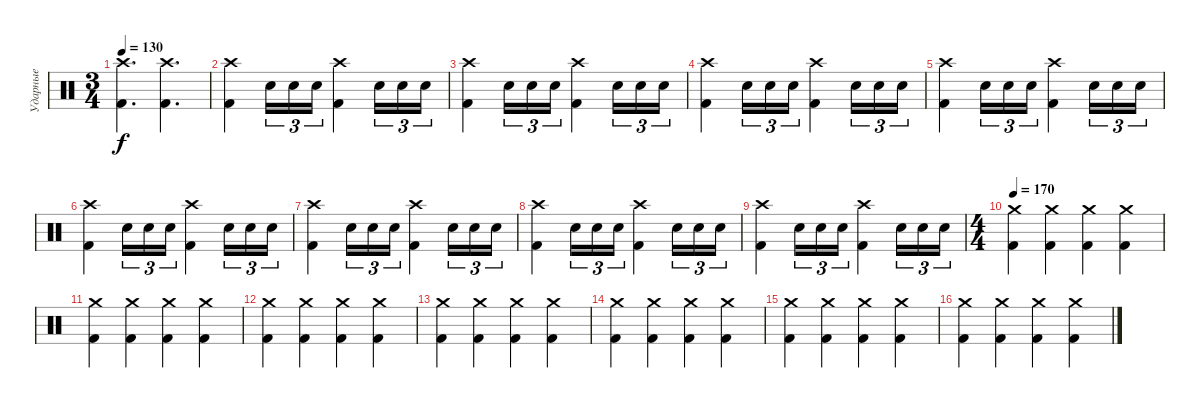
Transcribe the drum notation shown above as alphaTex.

\track ("Ударные" "Ударные") {instrument percussion}
\staff {score}
\articulation defaults
\ts (3 4)
\tempo 130
\clef neutral
\ks c
("Crash high (hit)" "Kick (hit) 2").4{d dy f} ("Crash high (hit)" "Kick (hit) 2").4{d} |
("Crash high (hit)" "Kick (hit) 2").4 "Electric Snare (hit)".16{tu (3 2)} "Electric Snare (hit)".16{tu (3 2)} "Electric Snare (hit)".16{tu (3 2)} ("Crash high (hit)" "Kick (hit) 2").4 "Electric Snare (hit)".16{tu (3 2)} "Electric Snare (hit)".16{tu (3 2)} "Electric Snare (hit)".16{tu (3 2)} |
("Crash high (hit)" "Kick (hit) 2").4 "Electric Snare (hit)".16{tu (3 2)} "Electric Snare (hit)".16{tu (3 2)} "Electric Snare (hit)".16{tu (3 2)} ("Crash high (hit)" "Kick (hit) 2").4 "Electric Snare (hit)".16{tu (3 2)} "Electric Snare (hit)".16{tu (3 2)} "Electric Snare (hit)".16{tu (3 2)} |
("Crash high (hit)" "Kick (hit) 2").4 "Electric Snare (hit)".16{tu (3 2)} "Electric Snare (hit)".16{tu (3 2)} "Electric Snare (hit)".16{tu (3 2)} ("Crash high (hit)" "Kick (hit) 2").4 "Electric Snare (hit)".16{tu (3 2)} "Electric Snare (hit)".16{tu (3 2)} "Electric Snare (hit)".16{tu (3 2)} |
("Crash high (hit)" "Kick (hit) 2").4 "Electric Snare (hit)".16{tu (3 2)} "Electric Snare (hit)".16{tu (3 2)} "Electric Snare (hit)".16{tu (3 2)} ("Crash high (hit)" "Kick (hit) 2").4 "Electric Snare (hit)".16{tu (3 2)} "Electric Snare (hit)".16{tu (3 2)} "Electric Snare (hit)".16{tu (3 2)} |
("Crash high (hit)" "Kick (hit) 2").4 "Electric Snare (hit)".16{tu (3 2)} "Electric Snare (hit)".16{tu (3 2)} "Electric Snare (hit)".16{tu (3 2)} ("Crash high (hit)" "Kick (hit) 2").4 "Electric Snare (hit)".16{tu (3 2)} "Electric Snare (hit)".16{tu (3 2)} "Electric Snare (hit)".16{tu (3 2)} |
("Crash high (hit)" "Kick (hit) 2").4 "Electric Snare (hit)".16{tu (3 2)} "Electric Snare (hit)".16{tu (3 2)} "Electric Snare (hit)".16{tu (3 2)} ("Crash high (hit)" "Kick (hit) 2").4 "Electric Snare (hit)".16{tu (3 2)} "Electric Snare (hit)".16{tu (3 2)} "Electric Snare (hit)".16{tu (3 2)} |
("Crash high (hit)" "Kick (hit) 2").4 "Electric Snare (hit)".16{tu (3 2)} "Electric Snare (hit)".16{tu (3 2)} "Electric Snare (hit)".16{tu (3 2)} ("Crash high (hit)" "Kick (hit) 2").4 "Electric Snare (hit)".16{tu (3 2)} "Electric Snare (hit)".16{tu (3 2)} "Electric Snare (hit)".16{tu (3 2)} |
("Crash high (hit)" "Kick (hit) 2").4 "Electric Snare (hit)".16{tu (3 2)} "Electric Snare (hit)".16{tu (3 2)} "Electric Snare (hit)".16{tu (3 2)} ("Crash high (hit)" "Kick (hit) 2").4 "Electric Snare (hit)".16{tu (3 2)} "Electric Snare (hit)".16{tu (3 2)} "Electric Snare (hit)".16{tu (3 2)} |
\ts (4 4)
\tempo 170
("Crash medium (hit)" "Kick (hit) 2").4 ("Crash medium (hit)" "Kick (hit) 2").4 ("Crash medium (hit)" "Kick (hit) 2").4 ("Crash medium (hit)" "Kick (hit) 2").4 |
("Crash medium (hit)" "Kick (hit) 2").4 ("Crash medium (hit)" "Kick (hit) 2").4 ("Crash medium (hit)" "Kick (hit) 2").4 ("Crash medium (hit)" "Kick (hit) 2").4 |
("Crash medium (hit)" "Kick (hit) 2").4 ("Crash medium (hit)" "Kick (hit) 2").4 ("Crash medium (hit)" "Kick (hit) 2").4 ("Crash medium (hit)" "Kick (hit) 2").4 |
("Crash medium (hit)" "Kick (hit) 2").4 ("Crash medium (hit)" "Kick (hit) 2").4 ("Crash medium (hit)" "Kick (hit) 2").4 ("Crash medium (hit)" "Kick (hit) 2").4 |
("Crash medium (hit)" "Kick (hit) 2").4 ("Crash medium (hit)" "Kick (hit) 2").4 ("Crash medium (hit)" "Kick (hit) 2").4 ("Crash medium (hit)" "Kick (hit) 2").4 |
("Crash medium (hit)" "Kick (hit) 2").4 ("Crash medium (hit)" "Kick (hit) 2").4 ("Crash medium (hit)" "Kick (hit) 2").4 ("Crash medium (hit)" "Kick (hit) 2").4 |
("Crash medium (hit)" "Kick (hit) 2").4 ("Crash medium (hit)" "Kick (hit) 2").4 ("Crash medium (hit)" "Kick (hit) 2").4 ("Crash medium (hit)" "Kick (hit) 2").4
